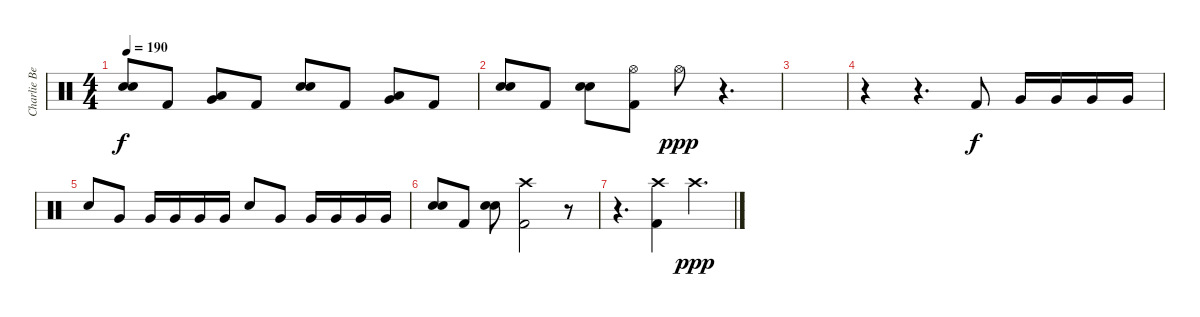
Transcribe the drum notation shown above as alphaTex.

\track ("Charlie Benante" "Charlie Be") {instrument percussion}
\staff {score}
\articulation defaults
\ts (4 4)
\tempo 190
\clef neutral
\ks c
("Snare (hit) 2" "Snare (hit) 2").8{bd 120 dy f} "Kick (hit) 2".8 ("Very Low Tom (hit)" "Low Floor Tom (hit)").8{bd 120} "Kick (hit) 2".8 ("Snare (hit) 2" "Snare (hit) 2").8{bd 120} "Kick (hit) 2".8 ("Very Low Tom (hit)" "Low Floor Tom (hit)").8{bd 120} "Kick (hit) 2".8 |
("Snare (hit) 2" "Snare (hit) 2").8{bd 120} "Kick (hit) 2".8 ("Snare (hit) 2" "Snare (hit) 2").8{bd 120} ("Kick (hit) 2" "Hi-Hat (open)").8 "Hi-Hat (open)".8{dy ppp} r.4{d} |
|
r.4 r.4{d} "Kick (hit) 2".8{dy f} "Very Low Tom (hit)".16 "Very Low Tom (hit)".16 "Very Low Tom (hit)".16 "Very Low Tom (hit)".16 |
"Snare (hit) 2".8 "Very Low Tom (hit)".8 "Very Low Tom (hit)".16 "Very Low Tom (hit)".16 "Very Low Tom (hit)".16 "Very Low Tom (hit)".16 "Snare (hit) 2".8 "Very Low Tom (hit)".8 "Very Low Tom (hit)".16 "Very Low Tom (hit)".16 "Very Low Tom (hit)".16 "Very Low Tom (hit)".16 |
("Snare (hit) 2" "Snare (hit) 2").8{bd 120} "Kick (hit) 2".8 ("Snare (hit) 2" "Snare (hit) 2").8{bd 120} ("Kick (hit) 2" "Crash high (hit)").2 r.8 |
r.4{d} ("Kick (hit) 2" "Crash high (hit)").4 "Crash high (hit)".4{d dy ppp}
